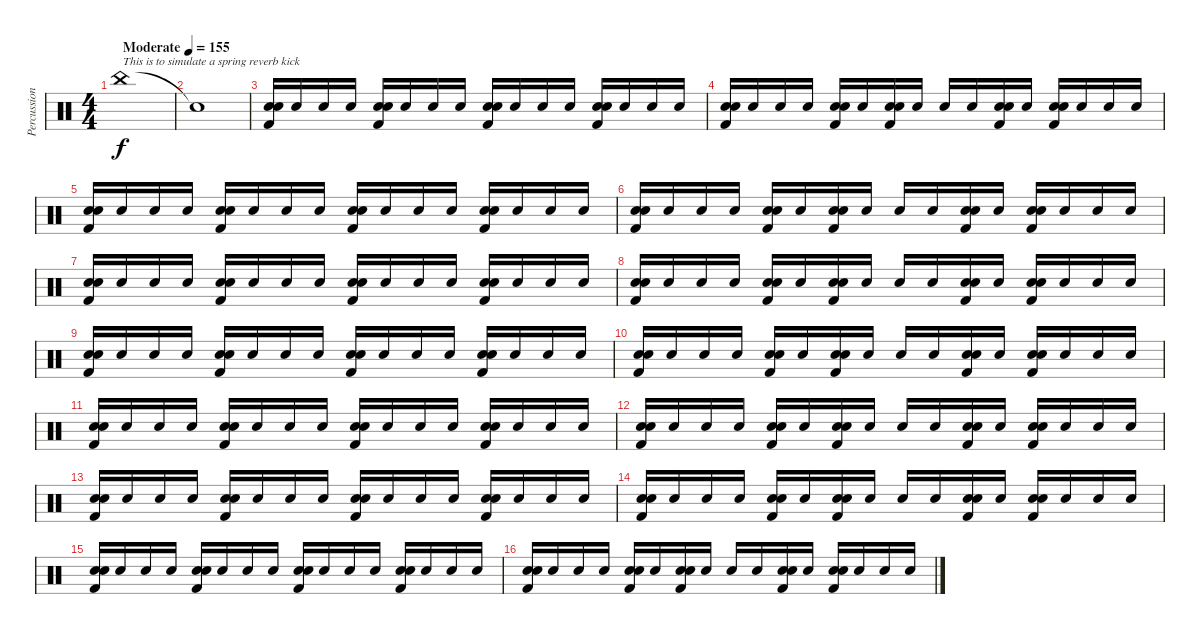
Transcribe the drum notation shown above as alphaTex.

\track ("Percussion" "Percussion") {instrument percussion}
\staff {score}
\articulation defaults
\ts (4 4)
\tempo (155 "Moderate")
\clef neutral
\ks c "China (hit)".1{txt "This is to simulate a spring reverb kick" dy f volume 16}
|
"Snare (hit)"{t}.1 |
("Snare (hit) 2" "Snare (hit) 2" "Kick (hit) 2").16{volume 7} "Snare (hit) 2".16 "Snare (hit) 2".16 "Snare (hit) 2".16 ("Snare (hit) 2" "Snare (hit) 2" "Kick (hit) 2").16 "Snare (hit) 2".16 "Snare (hit) 2".16 "Snare (hit) 2".16 ("Snare (hit) 2" "Snare (hit) 2" "Kick (hit) 2").16 "Snare (hit) 2".16 "Snare (hit) 2".16 "Snare (hit) 2".16 ("Snare (hit) 2" "Snare (hit) 2" "Kick (hit) 2").16 "Snare (hit) 2".16 "Snare (hit) 2".16 "Snare (hit) 2".16 |
("Snare (hit) 2" "Snare (hit) 2" "Kick (hit) 2").16 "Snare (hit) 2".16 "Snare (hit) 2".16 "Snare (hit) 2".16 ("Snare (hit) 2" "Snare (hit) 2" "Kick (hit) 2").16 "Snare (hit) 2".16 ("Snare (hit) 2" "Snare (hit) 2" "Kick (hit) 2").16 "Snare (hit) 2".16 "Snare (hit) 2".16 "Snare (hit) 2".16 ("Snare (hit) 2" "Snare (hit) 2" "Kick (hit) 2").16 "Snare (hit) 2".16 ("Snare (hit) 2" "Snare (hit) 2" "Kick (hit) 2").16 "Snare (hit) 2".16 "Snare (hit) 2".16 "Snare (hit) 2".16 |
("Snare (hit) 2" "Snare (hit) 2" "Kick (hit) 2").16 "Snare (hit) 2".16 "Snare (hit) 2".16 "Snare (hit) 2".16 ("Snare (hit) 2" "Snare (hit) 2" "Kick (hit) 2").16 "Snare (hit) 2".16 "Snare (hit) 2".16 "Snare (hit) 2".16 ("Snare (hit) 2" "Snare (hit) 2" "Kick (hit) 2").16 "Snare (hit) 2".16 "Snare (hit) 2".16 "Snare (hit) 2".16 ("Snare (hit) 2" "Snare (hit) 2" "Kick (hit) 2").16 "Snare (hit) 2".16 "Snare (hit) 2".16 "Snare (hit) 2".16 |
("Snare (hit) 2" "Snare (hit) 2" "Kick (hit) 2").16 "Snare (hit) 2".16 "Snare (hit) 2".16 "Snare (hit) 2".16 ("Snare (hit) 2" "Snare (hit) 2" "Kick (hit) 2").16 "Snare (hit) 2".16 ("Snare (hit) 2" "Snare (hit) 2" "Kick (hit) 2").16 "Snare (hit) 2".16 "Snare (hit) 2".16 "Snare (hit) 2".16 ("Snare (hit) 2" "Snare (hit) 2" "Kick (hit) 2").16 "Snare (hit) 2".16 ("Snare (hit) 2" "Snare (hit) 2" "Kick (hit) 2").16 "Snare (hit) 2".16 "Snare (hit) 2".16 "Snare (hit) 2".16 |
("Snare (hit) 2" "Snare (hit) 2" "Kick (hit) 2").16 "Snare (hit) 2".16 "Snare (hit) 2".16 "Snare (hit) 2".16 ("Snare (hit) 2" "Snare (hit) 2" "Kick (hit) 2").16 "Snare (hit) 2".16 "Snare (hit) 2".16 "Snare (hit) 2".16 ("Snare (hit) 2" "Snare (hit) 2" "Kick (hit) 2").16 "Snare (hit) 2".16 "Snare (hit) 2".16 "Snare (hit) 2".16 ("Snare (hit) 2" "Snare (hit) 2" "Kick (hit) 2").16 "Snare (hit) 2".16 "Snare (hit) 2".16 "Snare (hit) 2".16 |
("Snare (hit) 2" "Snare (hit) 2" "Kick (hit) 2").16 "Snare (hit) 2".16 "Snare (hit) 2".16 "Snare (hit) 2".16 ("Snare (hit) 2" "Snare (hit) 2" "Kick (hit) 2").16 "Snare (hit) 2".16 ("Snare (hit) 2" "Snare (hit) 2" "Kick (hit) 2").16 "Snare (hit) 2".16 "Snare (hit) 2".16 "Snare (hit) 2".16 ("Snare (hit) 2" "Snare (hit) 2" "Kick (hit) 2").16 "Snare (hit) 2".16 ("Snare (hit) 2" "Snare (hit) 2" "Kick (hit) 2").16 "Snare (hit) 2".16 "Snare (hit) 2".16 "Snare (hit) 2".16 |
("Snare (hit) 2" "Snare (hit) 2" "Kick (hit) 2").16 "Snare (hit) 2".16 "Snare (hit) 2".16 "Snare (hit) 2".16 ("Snare (hit) 2" "Snare (hit) 2" "Kick (hit) 2").16 "Snare (hit) 2".16 "Snare (hit) 2".16 "Snare (hit) 2".16 ("Snare (hit) 2" "Snare (hit) 2" "Kick (hit) 2").16 "Snare (hit) 2".16 "Snare (hit) 2".16 "Snare (hit) 2".16 ("Snare (hit) 2" "Snare (hit) 2" "Kick (hit) 2").16 "Snare (hit) 2".16 "Snare (hit) 2".16 "Snare (hit) 2".16 |
("Snare (hit) 2" "Snare (hit) 2" "Kick (hit) 2").16 "Snare (hit) 2".16 "Snare (hit) 2".16 "Snare (hit) 2".16 ("Snare (hit) 2" "Snare (hit) 2" "Kick (hit) 2").16 "Snare (hit) 2".16 ("Snare (hit) 2" "Snare (hit) 2" "Kick (hit) 2").16 "Snare (hit) 2".16 "Snare (hit) 2".16 "Snare (hit) 2".16 ("Snare (hit) 2" "Snare (hit) 2" "Kick (hit) 2").16 "Snare (hit) 2".16 ("Snare (hit) 2" "Snare (hit) 2" "Kick (hit) 2").16 "Snare (hit) 2".16 "Snare (hit) 2".16 "Snare (hit) 2".16 |
("Snare (hit) 2" "Snare (hit) 2" "Kick (hit) 2").16 "Snare (hit) 2".16 "Snare (hit) 2".16 "Snare (hit) 2".16 ("Snare (hit) 2" "Snare (hit) 2" "Kick (hit) 2").16 "Snare (hit) 2".16 "Snare (hit) 2".16 "Snare (hit) 2".16 ("Snare (hit) 2" "Snare (hit) 2" "Kick (hit) 2").16 "Snare (hit) 2".16 "Snare (hit) 2".16 "Snare (hit) 2".16 ("Snare (hit) 2" "Snare (hit) 2" "Kick (hit) 2").16 "Snare (hit) 2".16 "Snare (hit) 2".16 "Snare (hit) 2".16 |
("Snare (hit) 2" "Snare (hit) 2" "Kick (hit) 2").16 "Snare (hit) 2".16 "Snare (hit) 2".16 "Snare (hit) 2".16 ("Snare (hit) 2" "Snare (hit) 2" "Kick (hit) 2").16 "Snare (hit) 2".16 ("Snare (hit) 2" "Snare (hit) 2" "Kick (hit) 2").16 "Snare (hit) 2".16 "Snare (hit) 2".16 "Snare (hit) 2".16 ("Snare (hit) 2" "Snare (hit) 2" "Kick (hit) 2").16 "Snare (hit) 2".16 ("Snare (hit) 2" "Snare (hit) 2" "Kick (hit) 2").16 "Snare (hit) 2".16 "Snare (hit) 2".16 "Snare (hit) 2".16 |
("Snare (hit) 2" "Snare (hit) 2" "Kick (hit) 2").16 "Snare (hit) 2".16 "Snare (hit) 2".16 "Snare (hit) 2".16 ("Snare (hit) 2" "Snare (hit) 2" "Kick (hit) 2").16 "Snare (hit) 2".16 "Snare (hit) 2".16 "Snare (hit) 2".16 ("Snare (hit) 2" "Snare (hit) 2" "Kick (hit) 2").16 "Snare (hit) 2".16 "Snare (hit) 2".16 "Snare (hit) 2".16 ("Snare (hit) 2" "Snare (hit) 2" "Kick (hit) 2").16 "Snare (hit) 2".16 "Snare (hit) 2".16 "Snare (hit) 2".16 |
("Snare (hit) 2" "Snare (hit) 2" "Kick (hit) 2").16 "Snare (hit) 2".16 "Snare (hit) 2".16 "Snare (hit) 2".16 ("Snare (hit) 2" "Snare (hit) 2" "Kick (hit) 2").16 "Snare (hit) 2".16 ("Snare (hit) 2" "Snare (hit) 2" "Kick (hit) 2").16 "Snare (hit) 2".16 "Snare (hit) 2".16 "Snare (hit) 2".16 ("Snare (hit) 2" "Snare (hit) 2" "Kick (hit) 2").16 "Snare (hit) 2".16 ("Snare (hit) 2" "Snare (hit) 2" "Kick (hit) 2").16 "Snare (hit) 2".16 "Snare (hit) 2".16 "Snare (hit) 2".16 |
("Snare (hit) 2" "Snare (hit) 2" "Kick (hit) 2").16 "Snare (hit) 2".16 "Snare (hit) 2".16 "Snare (hit) 2".16 ("Snare (hit) 2" "Snare (hit) 2" "Kick (hit) 2").16 "Snare (hit) 2".16 "Snare (hit) 2".16 "Snare (hit) 2".16 ("Snare (hit) 2" "Snare (hit) 2" "Kick (hit) 2").16 "Snare (hit) 2".16 "Snare (hit) 2".16 "Snare (hit) 2".16 ("Snare (hit) 2" "Snare (hit) 2" "Kick (hit) 2").16 "Snare (hit) 2".16 "Snare (hit) 2".16 "Snare (hit) 2".16 |
("Snare (hit) 2" "Snare (hit) 2" "Kick (hit) 2").16 "Snare (hit) 2".16 "Snare (hit) 2".16 "Snare (hit) 2".16 ("Snare (hit) 2" "Snare (hit) 2" "Kick (hit) 2").16 "Snare (hit) 2".16 ("Snare (hit) 2" "Snare (hit) 2" "Kick (hit) 2").16 "Snare (hit) 2".16 "Snare (hit) 2".16 "Snare (hit) 2".16 ("Snare (hit) 2" "Snare (hit) 2" "Kick (hit) 2").16 "Snare (hit) 2".16 ("Snare (hit) 2" "Snare (hit) 2" "Kick (hit) 2").16 "Snare (hit) 2".16 "Snare (hit) 2".16 "Snare (hit) 2".16
